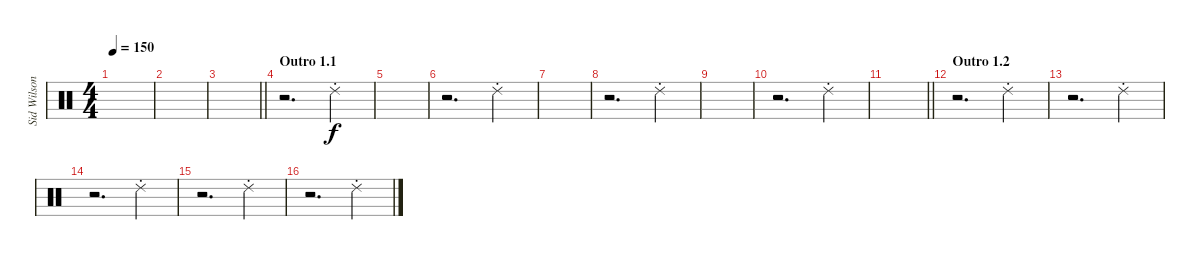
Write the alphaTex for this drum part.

\track ("Sid Wilson" "Sid Wilson") {instrument percussion}
\staff {score}
\articulation defaults
\ts (4 4)
\tempo 150
\clef neutral
\ks c
|
|
\barLineRight lightlight
|
\section ("" "Outro 1.1")
r.2{d} "Ride (choke) 2".4 |
|
r.2{d} "Ride (choke) 2".4 |
|
r.2{d} "Ride (choke) 2".4 |
|
r.2{d} "Ride (choke) 2".4 |
\barLineRight lightlight
|
\section ("" "Outro 1.2")
r.2{d} "Ride (choke) 2".4 |
r.2{d} "Ride (choke) 2".4 |
r.2{d} "Ride (choke) 2".4 |
r.2{d} "Ride (choke) 2".4 |
r.2{d} "Ride (choke) 2".4
